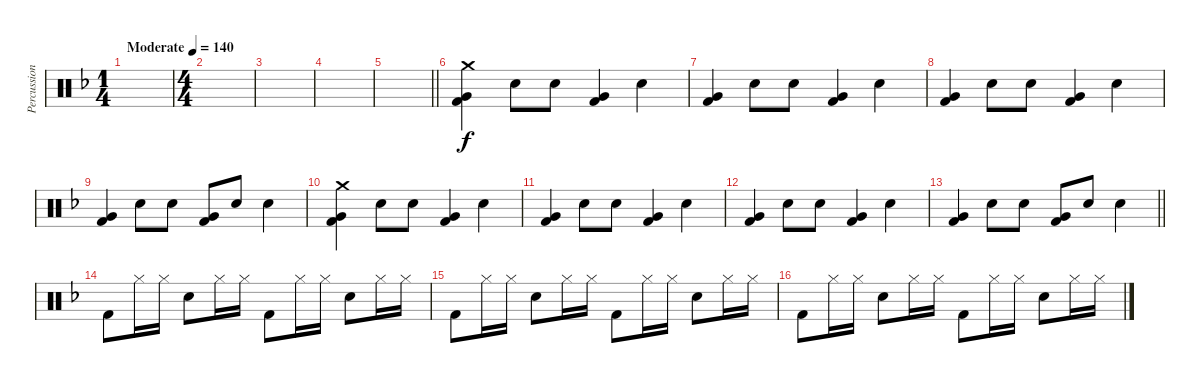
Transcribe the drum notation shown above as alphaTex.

\track ("Percussion" "Percussion") {instrument percussion}
\staff {score}
\articulation defaults
\ts (1 4)
\tempo (140 "Moderate")
\clef neutral
\ks dminor
|
\ts (4 4)
|
|
|
\barLineRight lightlight
|
("Crash medium (hit)" "Very Low Tom (hit)" "Kick (hit) 2").4 "Snare (hit) 2".8 "Snare (hit) 2".8 ("Very Low Tom (hit)" "Kick (hit) 2").4 "Snare (hit) 2".4 |
("Very Low Tom (hit)" "Kick (hit) 2").4 "Snare (hit) 2".8 "Snare (hit) 2".8 ("Very Low Tom (hit)" "Kick (hit) 2").4 "Snare (hit) 2".4 |
("Very Low Tom (hit)" "Kick (hit) 2").4 "Snare (hit) 2".8 "Snare (hit) 2".8 ("Very Low Tom (hit)" "Kick (hit) 2").4 "Snare (hit) 2".4 |
("Very Low Tom (hit)" "Kick (hit) 2").4 "Snare (hit) 2".8 "Snare (hit) 2".8 ("Very Low Tom (hit)" "Kick (hit) 2").8 "Snare (hit) 2".8 "Snare (hit) 2".4 |
("Crash medium (hit)" "Very Low Tom (hit)" "Kick (hit) 2").4 "Snare (hit) 2".8 "Snare (hit) 2".8 ("Very Low Tom (hit)" "Kick (hit) 2").4 "Snare (hit) 2".4 |
("Very Low Tom (hit)" "Kick (hit) 2").4 "Snare (hit) 2".8 "Snare (hit) 2".8 ("Very Low Tom (hit)" "Kick (hit) 2").4 "Snare (hit) 2".4 |
("Very Low Tom (hit)" "Kick (hit) 2").4 "Snare (hit) 2".8 "Snare (hit) 2".8 ("Very Low Tom (hit)" "Kick (hit) 2").4 "Snare (hit) 2".4 |
\barLineRight lightlight
("Very Low Tom (hit)" "Kick (hit) 2").4 "Snare (hit) 2".8 "Snare (hit) 2".8 ("Very Low Tom (hit)" "Kick (hit) 2").8 "Snare (hit) 2".8 "Snare (hit) 2".4 |
"Kick (hit) 2".8 "Hi-Hat (closed)".16 "Hi-Hat (closed)".16 "Snare (hit) 2".8 "Hi-Hat (closed)".16 "Hi-Hat (closed)".16 "Kick (hit) 2".8 "Hi-Hat (closed)".16 "Hi-Hat (closed)".16 "Snare (hit) 2".8 "Hi-Hat (closed)".16 "Hi-Hat (closed)".16 |
"Kick (hit) 2".8 "Hi-Hat (closed)".16 "Hi-Hat (closed)".16 "Snare (hit) 2".8 "Hi-Hat (closed)".16 "Hi-Hat (closed)".16 "Kick (hit) 2".8 "Hi-Hat (closed)".16 "Hi-Hat (closed)".16 "Snare (hit) 2".8 "Hi-Hat (closed)".16 "Hi-Hat (closed)".16 |
"Kick (hit) 2".8 "Hi-Hat (closed)".16 "Hi-Hat (closed)".16 "Snare (hit) 2".8 "Hi-Hat (closed)".16 "Hi-Hat (closed)".16 "Kick (hit) 2".8 "Hi-Hat (closed)".16 "Hi-Hat (closed)".16 "Snare (hit) 2".8 "Hi-Hat (closed)".16 "Hi-Hat (closed)".16
